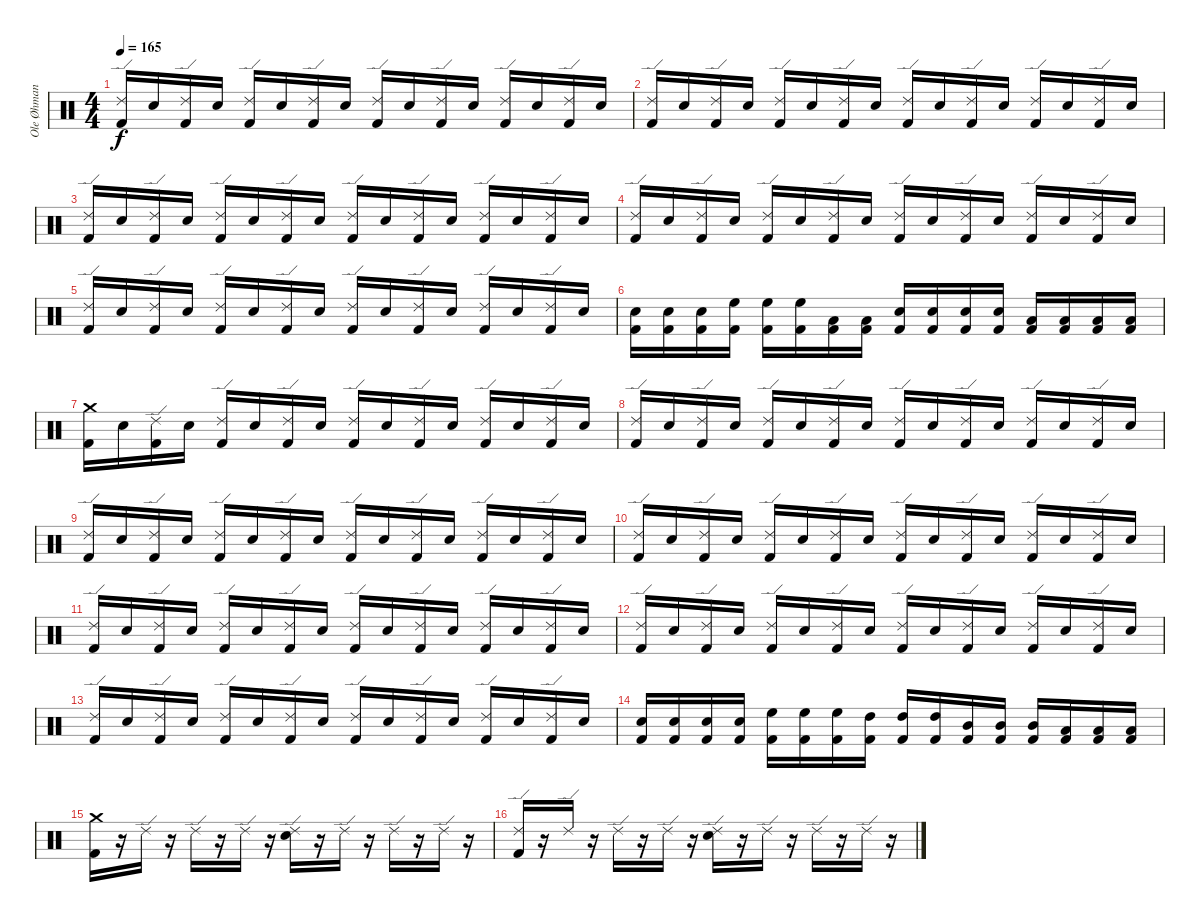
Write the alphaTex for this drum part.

\track ("Ole Øhman (Trommur)" "Ole Øhman ") {instrument percussion}
\staff {score}
\articulation defaults
\ts (4 4)
\tempo 165
\clef neutral
\ks c
("Ride (edge) 2" "Kick (hit) 2").16{dy f} "Electric Snare (hit)".16 ("Ride (edge) 2" "Kick (hit) 2").16 "Electric Snare (hit)".16 ("Ride (edge) 2" "Kick (hit) 2").16 "Electric Snare (hit)".16 ("Ride (edge) 2" "Kick (hit) 2").16 "Electric Snare (hit)".16 ("Ride (edge) 2" "Kick (hit) 2").16 "Electric Snare (hit)".16 ("Ride (edge) 2" "Kick (hit) 2").16 "Electric Snare (hit)".16 ("Ride (edge) 2" "Kick (hit) 2").16 "Electric Snare (hit)".16 ("Ride (edge) 2" "Kick (hit) 2").16 "Electric Snare (hit)".16 |
("Ride (edge) 2" "Kick (hit) 2").16 "Electric Snare (hit)".16 ("Ride (edge) 2" "Kick (hit) 2").16 "Electric Snare (hit)".16 ("Ride (edge) 2" "Kick (hit) 2").16 "Electric Snare (hit)".16 ("Ride (edge) 2" "Kick (hit) 2").16 "Electric Snare (hit)".16 ("Ride (edge) 2" "Kick (hit) 2").16 "Electric Snare (hit)".16 ("Ride (edge) 2" "Kick (hit) 2").16 "Electric Snare (hit)".16 ("Ride (edge) 2" "Kick (hit) 2").16 "Electric Snare (hit)".16 ("Ride (edge) 2" "Kick (hit) 2").16 "Electric Snare (hit)".16 |
("Ride (edge) 2" "Kick (hit) 2").16 "Electric Snare (hit)".16 ("Ride (edge) 2" "Kick (hit) 2").16 "Electric Snare (hit)".16 ("Ride (edge) 2" "Kick (hit) 2").16 "Electric Snare (hit)".16 ("Ride (edge) 2" "Kick (hit) 2").16 "Electric Snare (hit)".16 ("Ride (edge) 2" "Kick (hit) 2").16 "Electric Snare (hit)".16 ("Ride (edge) 2" "Kick (hit) 2").16 "Electric Snare (hit)".16 ("Ride (edge) 2" "Kick (hit) 2").16 "Electric Snare (hit)".16 ("Ride (edge) 2" "Kick (hit) 2").16 "Electric Snare (hit)".16 |
("Ride (edge) 2" "Kick (hit) 2").16 "Electric Snare (hit)".16 ("Ride (edge) 2" "Kick (hit) 2").16 "Electric Snare (hit)".16 ("Ride (edge) 2" "Kick (hit) 2").16 "Electric Snare (hit)".16 ("Ride (edge) 2" "Kick (hit) 2").16 "Electric Snare (hit)".16 ("Ride (edge) 2" "Kick (hit) 2").16 "Electric Snare (hit)".16 ("Ride (edge) 2" "Kick (hit) 2").16 "Electric Snare (hit)".16 ("Ride (edge) 2" "Kick (hit) 2").16 "Electric Snare (hit)".16 ("Ride (edge) 2" "Kick (hit) 2").16 "Electric Snare (hit)".16 |
("Ride (edge) 2" "Kick (hit) 2").16 "Electric Snare (hit)".16 ("Ride (edge) 2" "Kick (hit) 2").16 "Electric Snare (hit)".16 ("Ride (edge) 2" "Kick (hit) 2").16 "Electric Snare (hit)".16 ("Ride (edge) 2" "Kick (hit) 2").16 "Electric Snare (hit)".16 ("Ride (edge) 2" "Kick (hit) 2").16 "Electric Snare (hit)".16 ("Ride (edge) 2" "Kick (hit) 2").16 "Electric Snare (hit)".16 ("Ride (edge) 2" "Kick (hit) 2").16 "Electric Snare (hit)".16 ("Ride (edge) 2" "Kick (hit) 2").16 "Electric Snare (hit)".16 |
("Electric Snare (hit)" "Kick (hit) 2").16 ("Electric Snare (hit)" "Kick (hit) 2").16 ("Electric Snare (hit)" "Kick (hit) 2").16 ("High Floor Tom (hit)" "Kick (hit) 2").16 ("High Floor Tom (hit)" "Kick (hit) 2").16 ("High Floor Tom (hit)" "Kick (hit) 2").16 ("Low Tom (hit)" "Kick (hit) 2").16 ("Low Tom (hit)" "Kick (hit) 2").16 ("Electric Snare (hit)" "Kick (hit) 2").16 ("Electric Snare (hit)" "Kick (hit) 2").16 ("Electric Snare (hit)" "Kick (hit) 2").16 ("Electric Snare (hit)" "Kick (hit) 2").16 ("Low Tom (hit)" "Kick (hit) 2").16 ("Low Floor Tom (hit)" "Kick (hit) 2").16 ("Low Floor Tom (hit)" "Kick (hit) 2").16 ("Low Floor Tom (hit)" "Kick (hit) 2").16 |
("Crash medium (hit)" "Kick (hit) 2").16 "Electric Snare (hit)".16 ("Ride (edge) 2" "Kick (hit) 2").16 "Electric Snare (hit)".16 ("Ride (edge) 2" "Kick (hit) 2").16 "Electric Snare (hit)".16 ("Ride (edge) 2" "Kick (hit) 2").16 "Electric Snare (hit)".16 ("Ride (edge) 2" "Kick (hit) 2").16 "Electric Snare (hit)".16 ("Ride (edge) 2" "Kick (hit) 2").16 "Electric Snare (hit)".16 ("Ride (edge) 2" "Kick (hit) 2").16 "Electric Snare (hit)".16 ("Ride (edge) 2" "Kick (hit) 2").16 "Electric Snare (hit)".16 |
("Ride (edge) 2" "Kick (hit) 2").16 "Electric Snare (hit)".16 ("Ride (edge) 2" "Kick (hit) 2").16 "Electric Snare (hit)".16 ("Ride (edge) 2" "Kick (hit) 2").16 "Electric Snare (hit)".16 ("Ride (edge) 2" "Kick (hit) 2").16 "Electric Snare (hit)".16 ("Ride (edge) 2" "Kick (hit) 2").16 "Electric Snare (hit)".16 ("Ride (edge) 2" "Kick (hit) 2").16 "Electric Snare (hit)".16 ("Ride (edge) 2" "Kick (hit) 2").16 "Electric Snare (hit)".16 ("Ride (edge) 2" "Kick (hit) 2").16 "Electric Snare (hit)".16 |
("Ride (edge) 2" "Kick (hit) 2").16 "Electric Snare (hit)".16 ("Ride (edge) 2" "Kick (hit) 2").16 "Electric Snare (hit)".16 ("Ride (edge) 2" "Kick (hit) 2").16 "Electric Snare (hit)".16 ("Ride (edge) 2" "Kick (hit) 2").16 "Electric Snare (hit)".16 ("Ride (edge) 2" "Kick (hit) 2").16 "Electric Snare (hit)".16 ("Ride (edge) 2" "Kick (hit) 2").16 "Electric Snare (hit)".16 ("Ride (edge) 2" "Kick (hit) 2").16 "Electric Snare (hit)".16 ("Ride (edge) 2" "Kick (hit) 2").16 "Electric Snare (hit)".16 |
("Ride (edge) 2" "Kick (hit) 2").16 "Electric Snare (hit)".16 ("Ride (edge) 2" "Kick (hit) 2").16 "Electric Snare (hit)".16 ("Ride (edge) 2" "Kick (hit) 2").16 "Electric Snare (hit)".16 ("Ride (edge) 2" "Kick (hit) 2").16 "Electric Snare (hit)".16 ("Ride (edge) 2" "Kick (hit) 2").16 "Electric Snare (hit)".16 ("Ride (edge) 2" "Kick (hit) 2").16 "Electric Snare (hit)".16 ("Ride (edge) 2" "Kick (hit) 2").16 "Electric Snare (hit)".16 ("Ride (edge) 2" "Kick (hit) 2").16 "Electric Snare (hit)".16 |
("Ride (edge) 2" "Kick (hit) 2").16 "Electric Snare (hit)".16 ("Ride (edge) 2" "Kick (hit) 2").16 "Electric Snare (hit)".16 ("Ride (edge) 2" "Kick (hit) 2").16 "Electric Snare (hit)".16 ("Ride (edge) 2" "Kick (hit) 2").16 "Electric Snare (hit)".16 ("Ride (edge) 2" "Kick (hit) 2").16 "Electric Snare (hit)".16 ("Ride (edge) 2" "Kick (hit) 2").16 "Electric Snare (hit)".16 ("Ride (edge) 2" "Kick (hit) 2").16 "Electric Snare (hit)".16 ("Ride (edge) 2" "Kick (hit) 2").16 "Electric Snare (hit)".16 |
("Ride (edge) 2" "Kick (hit) 2").16 "Electric Snare (hit)".16 ("Ride (edge) 2" "Kick (hit) 2").16 "Electric Snare (hit)".16 ("Ride (edge) 2" "Kick (hit) 2").16 "Electric Snare (hit)".16 ("Ride (edge) 2" "Kick (hit) 2").16 "Electric Snare (hit)".16 ("Ride (edge) 2" "Kick (hit) 2").16 "Electric Snare (hit)".16 ("Ride (edge) 2" "Kick (hit) 2").16 "Electric Snare (hit)".16 ("Ride (edge) 2" "Kick (hit) 2").16 "Electric Snare (hit)".16 ("Ride (edge) 2" "Kick (hit) 2").16 "Electric Snare (hit)".16 |
("Ride (edge) 2" "Kick (hit) 2").16 "Electric Snare (hit)".16 ("Ride (edge) 2" "Kick (hit) 2").16 "Electric Snare (hit)".16 ("Ride (edge) 2" "Kick (hit) 2").16 "Electric Snare (hit)".16 ("Ride (edge) 2" "Kick (hit) 2").16 "Electric Snare (hit)".16 ("Ride (edge) 2" "Kick (hit) 2").16 "Electric Snare (hit)".16 ("Ride (edge) 2" "Kick (hit) 2").16 "Electric Snare (hit)".16 ("Ride (edge) 2" "Kick (hit) 2").16 "Electric Snare (hit)".16 ("Ride (edge) 2" "Kick (hit) 2").16 "Electric Snare (hit)".16 |
("Electric Snare (hit)" "Kick (hit) 2").16 ("Electric Snare (hit)" "Kick (hit) 2").16 ("Electric Snare (hit)" "Kick (hit) 2").16 ("Electric Snare (hit)" "Kick (hit) 2").16 ("High Floor Tom (hit)" "Kick (hit) 2").16 ("High Floor Tom (hit)" "Kick (hit) 2").16 ("High Floor Tom (hit)" "Kick (hit) 2").16 ("High Tom (hit)" "Kick (hit) 2").16 ("High Tom (hit)" "Kick (hit) 2").16 ("High Tom (hit)" "Kick (hit) 2").16 ("Mid Tom (hit)" "Kick (hit) 2").16 ("Mid Tom (hit)" "Kick (hit) 2").16 ("Mid Tom (hit)" "Kick (hit) 2").16 ("Low Tom (hit)" "Kick (hit) 2").16 ("Low Tom (hit)" "Kick (hit) 2").16 ("Low Tom (hit)" "Kick (hit) 2").16 |
("Crash medium (hit)" "Kick (hit) 2").16 r.16 "Ride (edge) 2".16 r.16 "Ride (edge) 2".16 r.16 "Ride (edge) 2".16 r.16 ("Ride (edge) 2" "Electric Snare (hit)").16 r.16 "Ride (edge) 2".16 r.16 "Ride (edge) 2".16 r.16 "Ride (edge) 2".16 r.16 |
("Ride (edge) 2" "Kick (hit) 2").16 r.16 "Ride (edge) 2".16 r.16 "Ride (edge) 2".16 r.16 "Ride (edge) 2".16 r.16 ("Ride (edge) 2" "Electric Snare (hit)").16 r.16 "Ride (edge) 2".16 r.16 "Ride (edge) 2".16 r.16 "Ride (edge) 2".16 r.16
